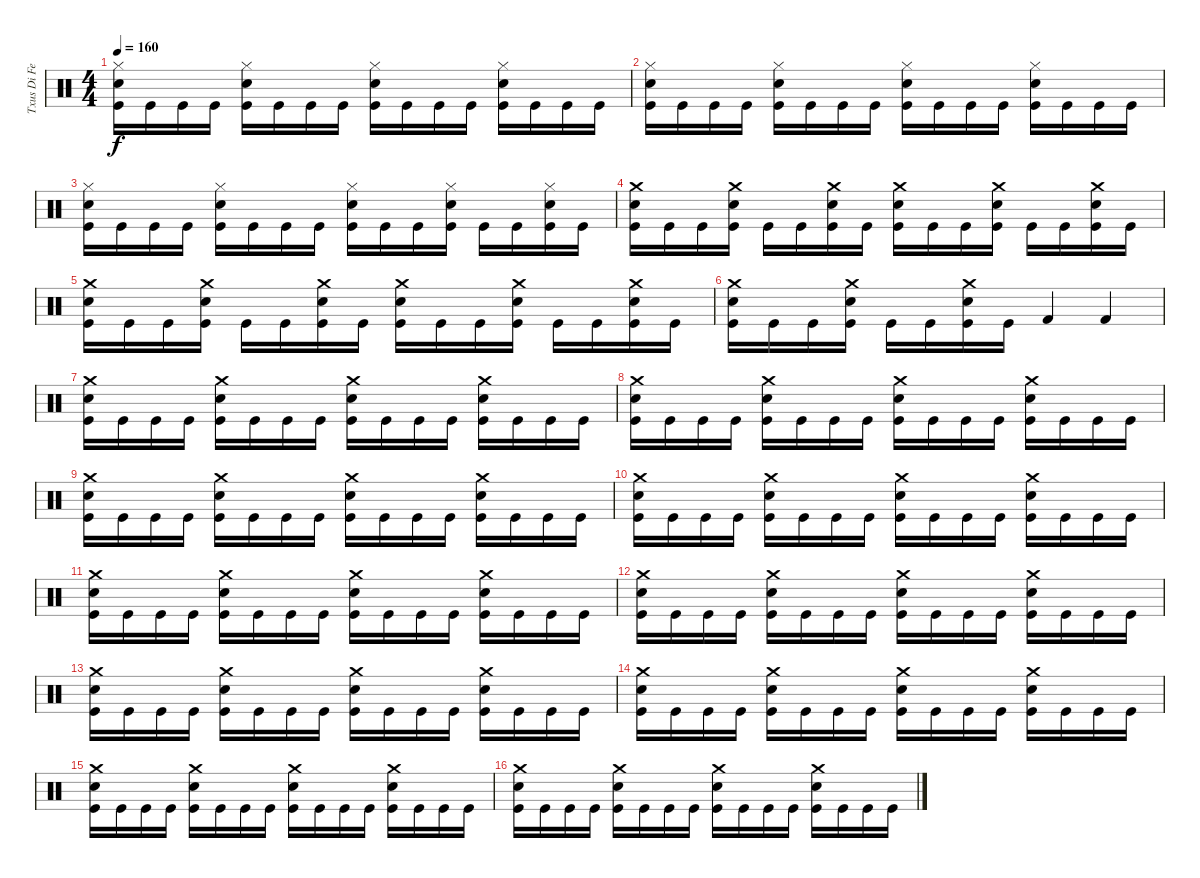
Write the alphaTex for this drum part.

\track ("Txus Di Fellatio" "Txus Di Fe") {instrument percussion}
\staff {score}
\articulation defaults
\ts (4 4)
\tempo 160
\clef neutral
\ks c
("Hi-Hat (closed)" "Snare (hit) 2" "Kick (hit)").16{dy f} "Kick (hit)".16 "Kick (hit)".16 "Kick (hit)".16 ("Hi-Hat (closed)" "Snare (hit) 2" "Kick (hit)").16 "Kick (hit)".16 "Kick (hit)".16 "Kick (hit)".16 ("Hi-Hat (closed)" "Snare (hit) 2" "Kick (hit)").16 "Kick (hit)".16 "Kick (hit)".16 "Kick (hit)".16 ("Hi-Hat (closed)" "Snare (hit) 2" "Kick (hit)").16 "Kick (hit)".16 "Kick (hit)".16 "Kick (hit)".16 |
("Hi-Hat (closed)" "Snare (hit) 2" "Kick (hit)").16 "Kick (hit)".16 "Kick (hit)".16 "Kick (hit)".16 ("Hi-Hat (closed)" "Snare (hit) 2" "Kick (hit)").16 "Kick (hit)".16 "Kick (hit)".16 "Kick (hit)".16 ("Hi-Hat (closed)" "Snare (hit) 2" "Kick (hit)").16 "Kick (hit)".16 "Kick (hit)".16 "Kick (hit)".16 ("Hi-Hat (closed)" "Snare (hit) 2" "Kick (hit)").16 "Kick (hit)".16 "Kick (hit)".16 "Kick (hit)".16 |
("Hi-Hat (closed)" "Snare (hit) 2" "Kick (hit)").16 "Kick (hit)".16 "Kick (hit)".16 "Kick (hit)".16 ("Hi-Hat (closed)" "Snare (hit) 2" "Kick (hit)").16 "Kick (hit)".16 "Kick (hit)".16 "Kick (hit)".16 ("Hi-Hat (closed)" "Snare (hit) 2" "Kick (hit)").16 "Kick (hit)".16 "Kick (hit)".16 ("Hi-Hat (closed)" "Snare (hit) 2" "Kick (hit)").16 "Kick (hit)".16 "Kick (hit)".16 ("Hi-Hat (closed)" "Snare (hit) 2" "Kick (hit)").16 "Kick (hit)".16 |
("Crash medium (hit)" "Snare (hit) 2" "Kick (hit)").16 "Kick (hit)".16 "Kick (hit)".16 ("Crash medium (hit)" "Snare (hit) 2" "Kick (hit)").16 "Kick (hit)".16 "Kick (hit)".16 ("Crash medium (hit)" "Snare (hit) 2" "Kick (hit)").16 "Kick (hit)".16 ("Crash medium (hit)" "Snare (hit) 2" "Kick (hit)").16 "Kick (hit)".16 "Kick (hit)".16 ("Crash medium (hit)" "Snare (hit) 2" "Kick (hit)").16 "Kick (hit)".16 "Kick (hit)".16 ("Crash medium (hit)" "Snare (hit) 2" "Kick (hit)").16 "Kick (hit)".16 |
("Crash medium (hit)" "Snare (hit) 2" "Kick (hit)").16 "Kick (hit)".16 "Kick (hit)".16 ("Crash medium (hit)" "Snare (hit) 2" "Kick (hit)").16 "Kick (hit)".16 "Kick (hit)".16 ("Crash medium (hit)" "Snare (hit) 2" "Kick (hit)").16 "Kick (hit)".16 ("Crash medium (hit)" "Snare (hit) 2" "Kick (hit)").16 "Kick (hit)".16 "Kick (hit)".16 ("Crash medium (hit)" "Snare (hit) 2" "Kick (hit)").16 "Kick (hit)".16 "Kick (hit)".16 ("Crash medium (hit)" "Snare (hit) 2" "Kick (hit)").16 "Kick (hit)".16 |
("Crash medium (hit)" "Snare (hit) 2" "Kick (hit)").16 "Kick (hit)".16 "Kick (hit)".16 ("Crash medium (hit)" "Snare (hit) 2" "Kick (hit)").16 "Kick (hit)".16 "Kick (hit)".16 ("Crash medium (hit)" "Snare (hit) 2" "Kick (hit)").16 "Kick (hit)".16 "Kick (hit) 2".4 "Kick (hit) 2".4 |
("Crash medium (hit)" "Snare (hit) 2" "Kick (hit)").16 "Kick (hit)".16 "Kick (hit)".16 "Kick (hit)".16 ("Crash medium (hit)" "Snare (hit) 2" "Kick (hit)").16 "Kick (hit)".16 "Kick (hit)".16 "Kick (hit)".16 ("Crash medium (hit)" "Snare (hit) 2" "Kick (hit)").16 "Kick (hit)".16 "Kick (hit)".16 "Kick (hit)".16 ("Crash medium (hit)" "Snare (hit) 2" "Kick (hit)").16 "Kick (hit)".16 "Kick (hit)".16 "Kick (hit)".16 |
("Crash medium (hit)" "Snare (hit) 2" "Kick (hit)").16 "Kick (hit)".16 "Kick (hit)".16 "Kick (hit)".16 ("Crash medium (hit)" "Snare (hit) 2" "Kick (hit)").16 "Kick (hit)".16 "Kick (hit)".16 "Kick (hit)".16 ("Crash medium (hit)" "Snare (hit) 2" "Kick (hit)").16 "Kick (hit)".16 "Kick (hit)".16 "Kick (hit)".16 ("Crash medium (hit)" "Snare (hit) 2" "Kick (hit)").16 "Kick (hit)".16 "Kick (hit)".16 "Kick (hit)".16 |
("Crash medium (hit)" "Snare (hit) 2" "Kick (hit)").16 "Kick (hit)".16 "Kick (hit)".16 "Kick (hit)".16 ("Crash medium (hit)" "Snare (hit) 2" "Kick (hit)").16 "Kick (hit)".16 "Kick (hit)".16 "Kick (hit)".16 ("Crash medium (hit)" "Snare (hit) 2" "Kick (hit)").16 "Kick (hit)".16 "Kick (hit)".16 "Kick (hit)".16 ("Crash medium (hit)" "Snare (hit) 2" "Kick (hit)").16 "Kick (hit)".16 "Kick (hit)".16 "Kick (hit)".16 |
("Crash medium (hit)" "Snare (hit) 2" "Kick (hit)").16 "Kick (hit)".16 "Kick (hit)".16 "Kick (hit)".16 ("Crash medium (hit)" "Snare (hit) 2" "Kick (hit)").16 "Kick (hit)".16 "Kick (hit)".16 "Kick (hit)".16 ("Crash medium (hit)" "Snare (hit) 2" "Kick (hit)").16 "Kick (hit)".16 "Kick (hit)".16 "Kick (hit)".16 ("Crash medium (hit)" "Snare (hit) 2" "Kick (hit)").16 "Kick (hit)".16 "Kick (hit)".16 "Kick (hit)".16 |
("Crash medium (hit)" "Snare (hit) 2" "Kick (hit)").16 "Kick (hit)".16 "Kick (hit)".16 "Kick (hit)".16 ("Crash medium (hit)" "Snare (hit) 2" "Kick (hit)").16 "Kick (hit)".16 "Kick (hit)".16 "Kick (hit)".16 ("Crash medium (hit)" "Snare (hit) 2" "Kick (hit)").16 "Kick (hit)".16 "Kick (hit)".16 "Kick (hit)".16 ("Crash medium (hit)" "Snare (hit) 2" "Kick (hit)").16 "Kick (hit)".16 "Kick (hit)".16 "Kick (hit)".16 |
("Crash medium (hit)" "Snare (hit) 2" "Kick (hit)").16 "Kick (hit)".16 "Kick (hit)".16 "Kick (hit)".16 ("Crash medium (hit)" "Snare (hit) 2" "Kick (hit)").16 "Kick (hit)".16 "Kick (hit)".16 "Kick (hit)".16 ("Crash medium (hit)" "Snare (hit) 2" "Kick (hit)").16 "Kick (hit)".16 "Kick (hit)".16 "Kick (hit)".16 ("Crash medium (hit)" "Snare (hit) 2" "Kick (hit)").16 "Kick (hit)".16 "Kick (hit)".16 "Kick (hit)".16 |
("Crash medium (hit)" "Snare (hit) 2" "Kick (hit)").16 "Kick (hit)".16 "Kick (hit)".16 "Kick (hit)".16 ("Crash medium (hit)" "Snare (hit) 2" "Kick (hit)").16 "Kick (hit)".16 "Kick (hit)".16 "Kick (hit)".16 ("Crash medium (hit)" "Snare (hit) 2" "Kick (hit)").16 "Kick (hit)".16 "Kick (hit)".16 "Kick (hit)".16 ("Crash medium (hit)" "Snare (hit) 2" "Kick (hit)").16 "Kick (hit)".16 "Kick (hit)".16 "Kick (hit)".16 |
("Crash medium (hit)" "Snare (hit) 2" "Kick (hit)").16 "Kick (hit)".16 "Kick (hit)".16 "Kick (hit)".16 ("Crash medium (hit)" "Snare (hit) 2" "Kick (hit)").16 "Kick (hit)".16 "Kick (hit)".16 "Kick (hit)".16 ("Crash medium (hit)" "Snare (hit) 2" "Kick (hit)").16 "Kick (hit)".16 "Kick (hit)".16 "Kick (hit)".16 ("Crash medium (hit)" "Snare (hit) 2" "Kick (hit)").16 "Kick (hit)".16 "Kick (hit)".16 "Kick (hit)".16 |
("Crash medium (hit)" "Snare (hit) 2" "Kick (hit)").16 "Kick (hit)".16 "Kick (hit)".16 "Kick (hit)".16 ("Crash medium (hit)" "Snare (hit) 2" "Kick (hit)").16 "Kick (hit)".16 "Kick (hit)".16 "Kick (hit)".16 ("Crash medium (hit)" "Snare (hit) 2" "Kick (hit)").16 "Kick (hit)".16 "Kick (hit)".16 "Kick (hit)".16 ("Crash medium (hit)" "Snare (hit) 2" "Kick (hit)").16 "Kick (hit)".16 "Kick (hit)".16 "Kick (hit)".16 |
("Crash medium (hit)" "Snare (hit) 2" "Kick (hit)").16 "Kick (hit)".16 "Kick (hit)".16 "Kick (hit)".16 ("Crash medium (hit)" "Snare (hit) 2" "Kick (hit)").16 "Kick (hit)".16 "Kick (hit)".16 "Kick (hit)".16 ("Crash medium (hit)" "Snare (hit) 2" "Kick (hit)").16 "Kick (hit)".16 "Kick (hit)".16 "Kick (hit)".16 ("Crash medium (hit)" "Snare (hit) 2" "Kick (hit)").16 "Kick (hit)".16 "Kick (hit)".16 "Kick (hit)".16
